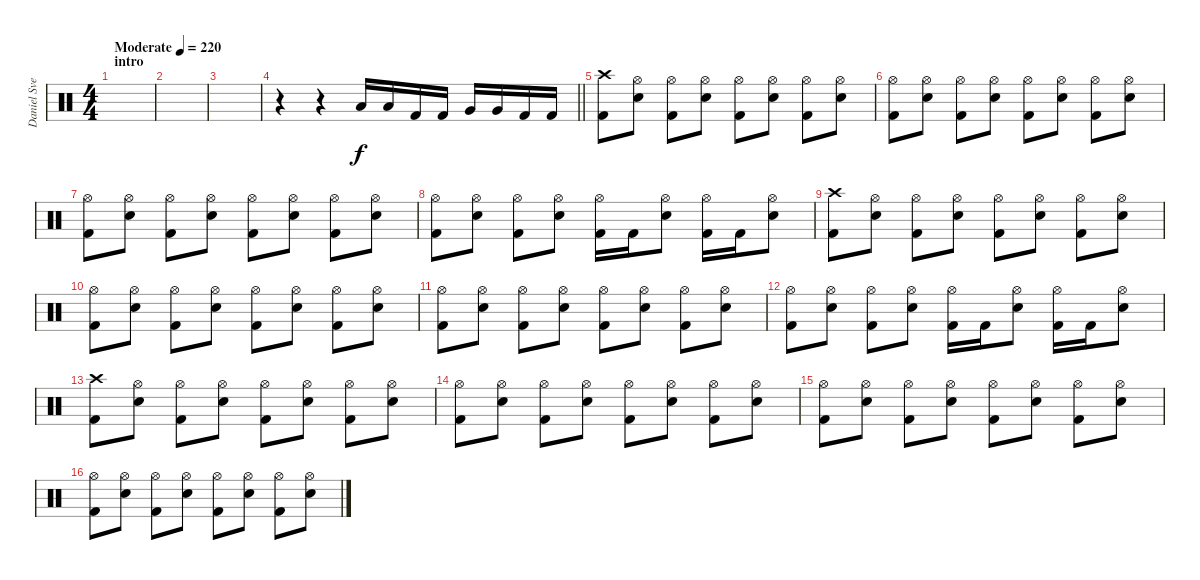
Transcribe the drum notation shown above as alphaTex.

\track ("Daniel Svensson" "Daniel Sve") {instrument percussion}
\staff {score}
\articulation defaults
\ts (4 4)
\section ("" "intro")
\tempo (220 "Moderate")
\clef neutral
\ks c
|
|
|
\barLineRight lightlight
r.4 r.4 "Low Tom (hit)".16 "Low Tom (hit)".16 "Kick (hit) 2".16 "Kick (hit) 2".16 "Very Low Tom (hit)".16 "Very Low Tom (hit)".16 "Kick (hit) 2".16 "Kick (hit) 2".16 |
\section ("" "")
("Crash high (hit)" "Kick (hit) 2").8 ("Hi-Hat (open)" "Electric Snare (hit)").8 ("Hi-Hat (open)" "Kick (hit) 2").8 ("Hi-Hat (open)" "Electric Snare (hit)").8 ("Hi-Hat (open)" "Kick (hit) 2").8 ("Hi-Hat (open)" "Electric Snare (hit)").8 ("Hi-Hat (open)" "Kick (hit) 2").8 ("Hi-Hat (open)" "Electric Snare (hit)").8 |
("Hi-Hat (open)" "Kick (hit) 2").8 ("Hi-Hat (open)" "Electric Snare (hit)").8 ("Hi-Hat (open)" "Kick (hit) 2").8 ("Hi-Hat (open)" "Electric Snare (hit)").8 ("Hi-Hat (open)" "Kick (hit) 2").8 ("Hi-Hat (open)" "Electric Snare (hit)").8 ("Hi-Hat (open)" "Kick (hit) 2").8 ("Hi-Hat (open)" "Electric Snare (hit)").8 |
("Hi-Hat (open)" "Kick (hit) 2").8 ("Hi-Hat (open)" "Electric Snare (hit)").8 ("Hi-Hat (open)" "Kick (hit) 2").8 ("Hi-Hat (open)" "Electric Snare (hit)").8 ("Hi-Hat (open)" "Kick (hit) 2").8 ("Hi-Hat (open)" "Electric Snare (hit)").8 ("Hi-Hat (open)" "Kick (hit) 2").8 ("Hi-Hat (open)" "Electric Snare (hit)").8 |
("Hi-Hat (open)" "Kick (hit) 2").8 ("Hi-Hat (open)" "Electric Snare (hit)").8 ("Hi-Hat (open)" "Kick (hit) 2").8 ("Hi-Hat (open)" "Electric Snare (hit)").8 ("Hi-Hat (open)" "Kick (hit) 2").16 "Kick (hit) 2".16 ("Hi-Hat (open)" "Electric Snare (hit)").8 ("Hi-Hat (open)" "Kick (hit) 2").16 "Kick (hit) 2".16 ("Hi-Hat (open)" "Electric Snare (hit)").8 |
("Crash high (hit)" "Kick (hit) 2").8 ("Hi-Hat (open)" "Electric Snare (hit)").8 ("Hi-Hat (open)" "Kick (hit) 2").8 ("Hi-Hat (open)" "Electric Snare (hit)").8 ("Hi-Hat (open)" "Kick (hit) 2").8 ("Hi-Hat (open)" "Electric Snare (hit)").8 ("Hi-Hat (open)" "Kick (hit) 2").8 ("Hi-Hat (open)" "Electric Snare (hit)").8 |
("Hi-Hat (open)" "Kick (hit) 2").8 ("Hi-Hat (open)" "Electric Snare (hit)").8 ("Hi-Hat (open)" "Kick (hit) 2").8 ("Hi-Hat (open)" "Electric Snare (hit)").8 ("Hi-Hat (open)" "Kick (hit) 2").8 ("Hi-Hat (open)" "Electric Snare (hit)").8 ("Hi-Hat (open)" "Kick (hit) 2").8 ("Hi-Hat (open)" "Electric Snare (hit)").8 |
("Hi-Hat (open)" "Kick (hit) 2").8 ("Hi-Hat (open)" "Electric Snare (hit)").8 ("Hi-Hat (open)" "Kick (hit) 2").8 ("Hi-Hat (open)" "Electric Snare (hit)").8 ("Hi-Hat (open)" "Kick (hit) 2").8 ("Hi-Hat (open)" "Electric Snare (hit)").8 ("Hi-Hat (open)" "Kick (hit) 2").8 ("Hi-Hat (open)" "Electric Snare (hit)").8 |
("Hi-Hat (open)" "Kick (hit) 2").8 ("Hi-Hat (open)" "Electric Snare (hit)").8 ("Hi-Hat (open)" "Kick (hit) 2").8 ("Hi-Hat (open)" "Electric Snare (hit)").8 ("Hi-Hat (open)" "Kick (hit) 2").16 "Kick (hit) 2".16 ("Hi-Hat (open)" "Electric Snare (hit)").8 ("Hi-Hat (open)" "Kick (hit) 2").16 "Kick (hit) 2".16 ("Hi-Hat (open)" "Electric Snare (hit)").8 |
("Crash high (hit)" "Kick (hit) 2").8 ("Hi-Hat (open)" "Electric Snare (hit)").8 ("Hi-Hat (open)" "Kick (hit) 2").8 ("Hi-Hat (open)" "Electric Snare (hit)").8 ("Hi-Hat (open)" "Kick (hit) 2").8 ("Hi-Hat (open)" "Electric Snare (hit)").8 ("Hi-Hat (open)" "Kick (hit) 2").8 ("Hi-Hat (open)" "Electric Snare (hit)").8 |
("Hi-Hat (open)" "Kick (hit) 2").8 ("Hi-Hat (open)" "Electric Snare (hit)").8 ("Hi-Hat (open)" "Kick (hit) 2").8 ("Hi-Hat (open)" "Electric Snare (hit)").8 ("Hi-Hat (open)" "Kick (hit) 2").8 ("Hi-Hat (open)" "Electric Snare (hit)").8 ("Hi-Hat (open)" "Kick (hit) 2").8 ("Hi-Hat (open)" "Electric Snare (hit)").8 |
("Hi-Hat (open)" "Kick (hit) 2").8 ("Hi-Hat (open)" "Electric Snare (hit)").8 ("Hi-Hat (open)" "Kick (hit) 2").8 ("Hi-Hat (open)" "Electric Snare (hit)").8 ("Hi-Hat (open)" "Kick (hit) 2").8 ("Hi-Hat (open)" "Electric Snare (hit)").8 ("Hi-Hat (open)" "Kick (hit) 2").8 ("Hi-Hat (open)" "Electric Snare (hit)").8 |
("Hi-Hat (open)" "Kick (hit) 2").8 ("Hi-Hat (open)" "Electric Snare (hit)").8 ("Hi-Hat (open)" "Kick (hit) 2").8 ("Hi-Hat (open)" "Electric Snare (hit)").8 ("Hi-Hat (open)" "Kick (hit) 2").8 ("Hi-Hat (open)" "Electric Snare (hit)").8 ("Hi-Hat (open)" "Kick (hit) 2").8 ("Hi-Hat (open)" "Electric Snare (hit)").8
